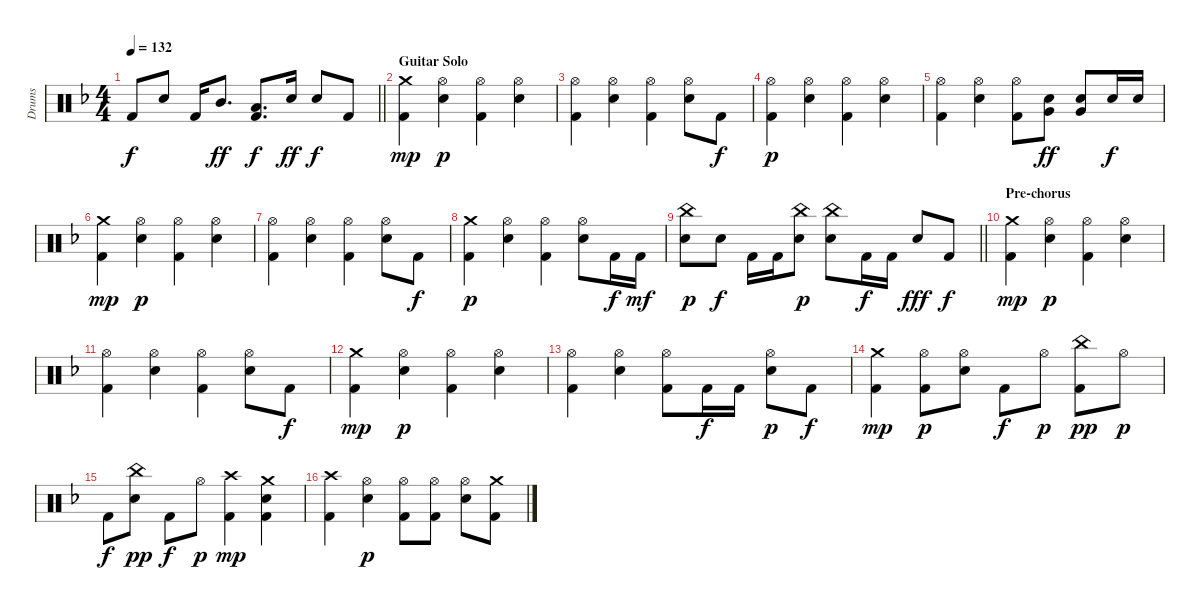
\track ("Drums" "Drums") {instrument percussion}
\staff {score}
\articulation defaults
\ts (4 4)
\tempo 132
\clef neutral
\barLineRight lightlight
\ks f "Kick (hit) 2".8{dy f} "Electric Snare (hit)".8 "Kick (hit) 2".16 "Mid Tom (hit)".8{d dy ff}
("Kick (hit) 2" "Low Tom (hit)").8{d dy f} "Electric Snare (hit)".16{dy ff} "Electric Snare (hit)".8{dy f} "Kick (hit) 2".8 |
\section ("" "Guitar Solo")
("Crash medium (hit)" "Kick (hit) 2").4{dy mp} ("Hi-Hat (open)" "Electric Snare (hit)").4{dy p} ("Hi-Hat (open)" "Kick (hit) 2").4 ("Hi-Hat (open)" "Electric Snare (hit)").4 |
("Hi-Hat (open)" "Kick (hit) 2").4 ("Hi-Hat (open)" "Electric Snare (hit)").4 ("Hi-Hat (open)" "Kick (hit) 2").4 ("Hi-Hat (open)" "Electric Snare (hit)").8 "Kick (hit) 2".8{dy f} |
("Hi-Hat (open)" "Kick (hit) 2").4{dy p} ("Hi-Hat (open)" "Electric Snare (hit)").4 ("Hi-Hat (open)" "Kick (hit) 2").4 ("Hi-Hat (open)" "Electric Snare (hit)").4 |
("Hi-Hat (open)" "Kick (hit) 2").4 ("Hi-Hat (open)" "Electric Snare (hit)").4 ("Hi-Hat (open)" "Kick (hit) 2").8 ("Electric Snare (hit)" "Very Low Tom (hit)").8{dy ff} ("Very Low Tom (hit)" "Electric Snare (hit)").8 "Electric Snare (hit)".16{dy f} "Electric Snare (hit)".16 |
("Crash medium (hit)" "Kick (hit) 2").4{dy mp} ("Hi-Hat (open)" "Electric Snare (hit)").4{dy p} ("Hi-Hat (open)" "Kick (hit) 2").4 ("Hi-Hat (open)" "Electric Snare (hit)").4 |
("Hi-Hat (open)" "Kick (hit) 2").4 ("Hi-Hat (open)" "Electric Snare (hit)").4 ("Hi-Hat (open)" "Kick (hit) 2").4 ("Hi-Hat (open)" "Electric Snare (hit)").8 "Kick (hit) 2".8{dy f} |
("Crash medium (hit)" "Kick (hit) 2").4{dy p} ("Hi-Hat (open)" "Electric Snare (hit)").4 ("Hi-Hat (open)" "Kick (hit) 2").4 ("Hi-Hat (open)" "Electric Snare (hit)").8 "Kick (hit) 2".16{dy f} "Kick (hit) 2".16{dy mf} |
\barLineRight lightlight
("Electric Snare (hit)" "China (hit)").8{dy p} "Electric Snare (hit)".8{dy f} "Kick (hit) 2".16 "Kick (hit) 2".16 ("Electric Snare (hit)" "China (hit)").8{dy p} ("Electric Snare (hit)" "China (hit)").8 "Kick (hit) 2".16{dy f} "Kick (hit) 2".16 "Electric Snare (hit)".8{dy fff} "Kick (hit) 2".8{dy f} |
\section ("" "Pre-chorus")
("Crash medium (hit)" "Kick (hit) 2").4{dy mp} ("Hi-Hat (open)" "Electric Snare (hit)").4{dy p} ("Hi-Hat (open)" "Kick (hit) 2").4 ("Hi-Hat (open)" "Electric Snare (hit)").4 |
("Hi-Hat (open)" "Kick (hit) 2").4 ("Hi-Hat (open)" "Electric Snare (hit)").4 ("Hi-Hat (open)" "Kick (hit) 2").4 ("Hi-Hat (open)" "Electric Snare (hit)").8 "Kick (hit) 2".8{dy f} |
("Crash medium (hit)" "Kick (hit) 2").4{dy mp} ("Hi-Hat (open)" "Electric Snare (hit)").4{dy p} ("Hi-Hat (open)" "Kick (hit) 2").4 ("Hi-Hat (open)" "Electric Snare (hit)").4 |
("Hi-Hat (open)" "Kick (hit) 2").4 ("Hi-Hat (open)" "Electric Snare (hit)").4 ("Hi-Hat (open)" "Kick (hit) 2").8 "Kick (hit) 2".16{dy f} "Kick (hit) 2".16 ("Hi-Hat (open)" "Electric Snare (hit)").8{dy p} "Kick (hit) 2".8{dy f} |
("Kick (hit) 2" "Crash medium (hit)").4{dy mp} ("Kick (hit) 2" "Hi-Hat (open)").8{dy p} ("Electric Snare (hit)" "Hi-Hat (open)").8 "Kick (hit) 2".8{dy f} "Hi-Hat (open)".8{dy p} ("Kick (hit) 2" "China (hit)").8{dy pp} "Hi-Hat (open)".8{dy p} |
"Kick (hit) 2".8{dy f} ("China (hit)" "Electric Snare (hit)").8{dy pp} "Kick (hit) 2".8{dy f} "Hi-Hat (open)".8{dy p} ("Kick (hit) 2" "Crash high (hit)").4{dy mp} ("Kick (hit) 2" "Electric Snare (hit)" "Crash medium (hit)").4 |
("Kick (hit) 2" "Crash high (hit)").4 ("Electric Snare (hit)" "Hi-Hat (open)").4{dy p} ("Hi-Hat (open)" "Kick (hit) 2").8 ("Hi-Hat (open)" "Kick (hit) 2").8 ("Hi-Hat (open)" "Electric Snare (hit)").8 ("Crash medium (hit)" "Kick (hit) 2").8
